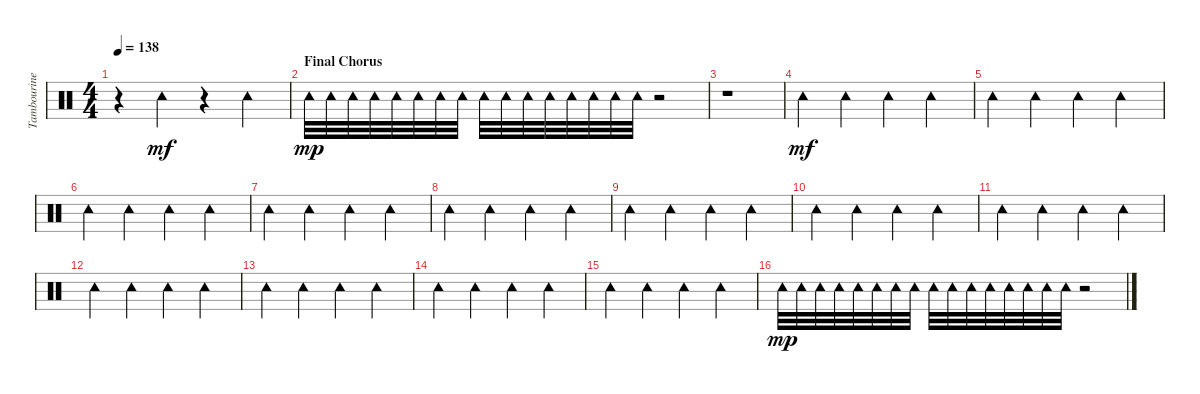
\track ("Tambourine" "Tambourine") {instrument percussion}
\staff {score}
\articulation defaults
\ts (4 4)
\tempo 138
\clef neutral
\ks c
r.4{dy mf} "Tambourine (hit)".4 r.4 "Tambourine (hit)".4 |
\section ("" "Final Chorus")
"Tambourine (hit)".32{dy mp} "Tambourine (hit)".32 "Tambourine (hit)".32 "Tambourine (hit)".32 "Tambourine (hit)".32 "Tambourine (hit)".32 "Tambourine (hit)".32 "Tambourine (hit)".32 "Tambourine (hit)".32 "Tambourine (hit)".32 "Tambourine (hit)".32 "Tambourine (hit)".32 "Tambourine (hit)".32 "Tambourine (hit)".32 "Tambourine (hit)".32 "Tambourine (hit)".32 r.2 |
r.1 |
"Tambourine (hit)".4{dy mf} "Tambourine (hit)".4 "Tambourine (hit)".4 "Tambourine (hit)".4 |
"Tambourine (hit)".4 "Tambourine (hit)".4 "Tambourine (hit)".4 "Tambourine (hit)".4 |
"Tambourine (hit)".4 "Tambourine (hit)".4 "Tambourine (hit)".4 "Tambourine (hit)".4 |
"Tambourine (hit)".4 "Tambourine (hit)".4 "Tambourine (hit)".4 "Tambourine (hit)".4 |
"Tambourine (hit)".4 "Tambourine (hit)".4 "Tambourine (hit)".4 "Tambourine (hit)".4 |
"Tambourine (hit)".4 "Tambourine (hit)".4 "Tambourine (hit)".4 "Tambourine (hit)".4 |
"Tambourine (hit)".4 "Tambourine (hit)".4 "Tambourine (hit)".4 "Tambourine (hit)".4 |
"Tambourine (hit)".4 "Tambourine (hit)".4 "Tambourine (hit)".4 "Tambourine (hit)".4 |
"Tambourine (hit)".4 "Tambourine (hit)".4 "Tambourine (hit)".4 "Tambourine (hit)".4 |
"Tambourine (hit)".4 "Tambourine (hit)".4 "Tambourine (hit)".4 "Tambourine (hit)".4 |
"Tambourine (hit)".4 "Tambourine (hit)".4 "Tambourine (hit)".4 "Tambourine (hit)".4 |
"Tambourine (hit)".4 "Tambourine (hit)".4 "Tambourine (hit)".4 "Tambourine (hit)".4 |
"Tambourine (hit)".32{dy mp} "Tambourine (hit)".32 "Tambourine (hit)".32 "Tambourine (hit)".32 "Tambourine (hit)".32 "Tambourine (hit)".32 "Tambourine (hit)".32 "Tambourine (hit)".32 "Tambourine (hit)".32 "Tambourine (hit)".32 "Tambourine (hit)".32 "Tambourine (hit)".32 "Tambourine (hit)".32 "Tambourine (hit)".32 "Tambourine (hit)".32 "Tambourine (hit)".32 r.2
